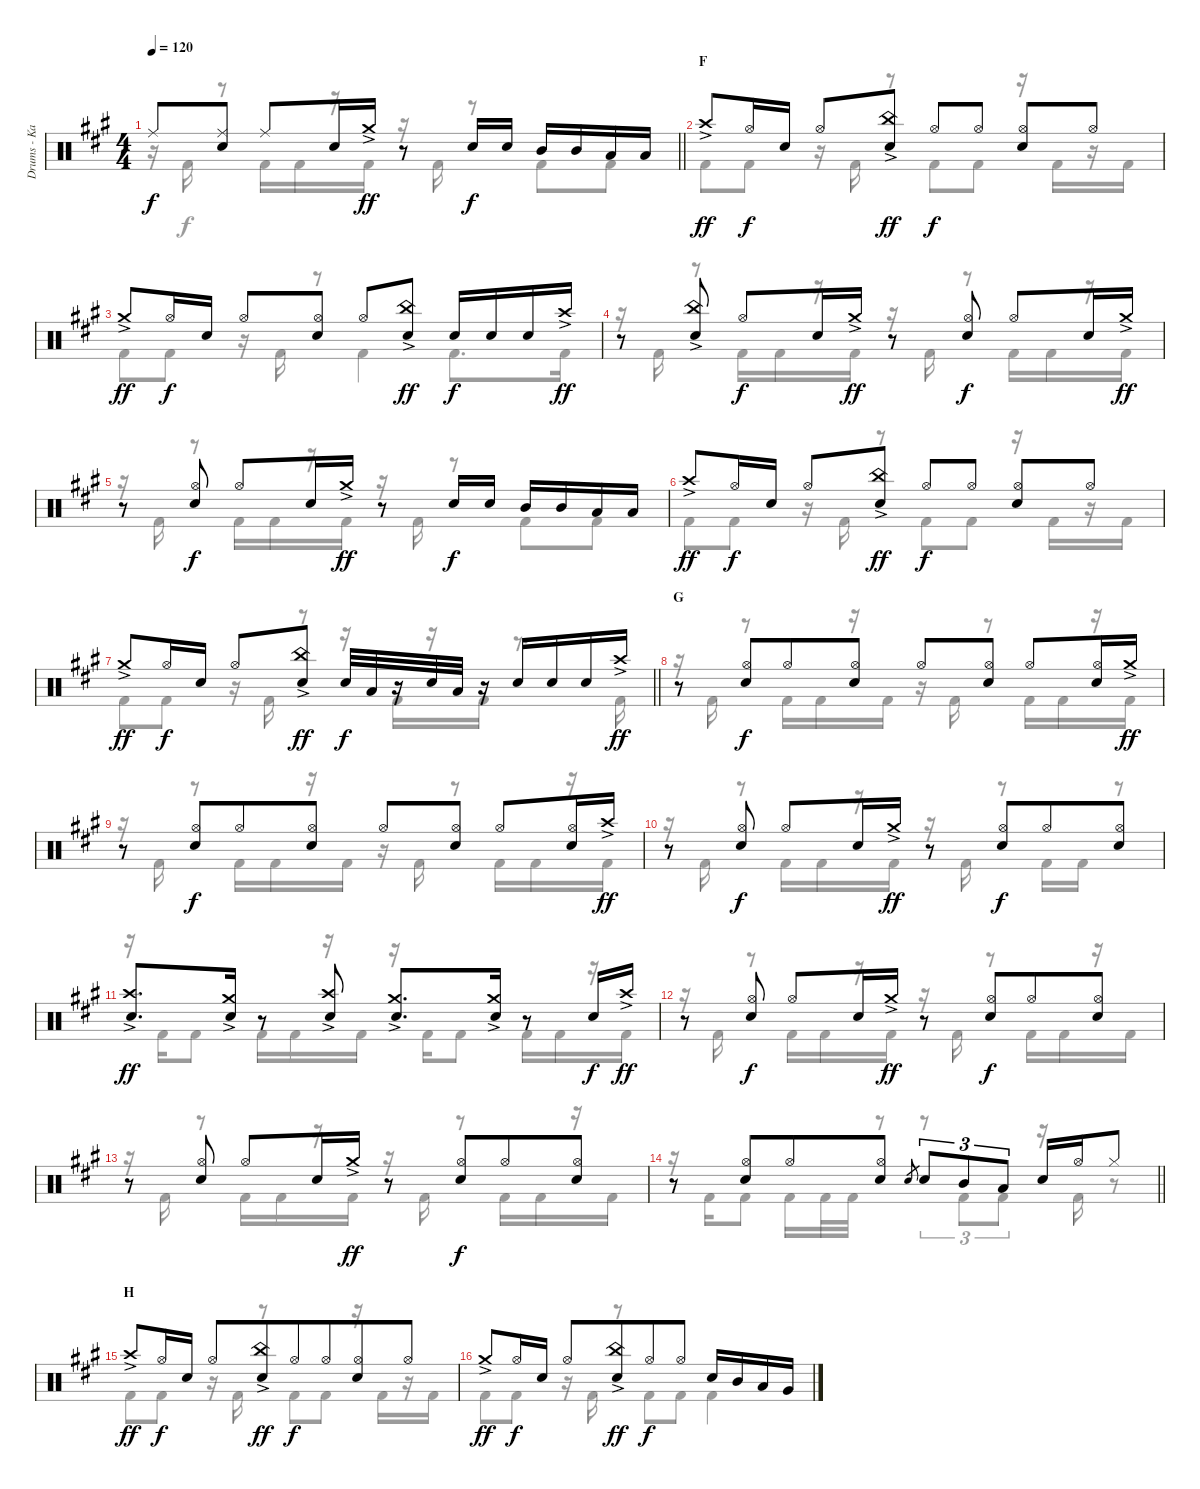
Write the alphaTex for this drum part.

\track ("Drums - Kai" "Drums - Ka") {instrument percussion}
\staff {score}
\articulation defaults
\voice
\ts (4 4)
\tempo 120
\clef neutral
\barLineRight lightlight
\ks a "Ride (middle)".8{dy f}
("Ride (middle)" "Snare (hit) 2").8 "Ride (middle)".8 "Snare (hit) 2".16 "Crash medium (hit)"{ac}.16{dy ff} r.8 "Snare (hit) 2".16{dy f} "Snare (hit) 2".16 "Mid Tom (hit)".16 "Mid Tom (hit)".16 "Low Tom (hit)".16 "Low Tom (hit)".16 |
\section ("" "F")
"Crash high (hit)"{ac}.8{dy ff} "Hi-Hat (open)".16{dy f} "Snare (hit) 2".16 "Hi-Hat (open)".8 ("China (hit)"{ac} "Snare (hit) 2").8{dy ff} "Hi-Hat (open)".8{dy f} "Hi-Hat (open)".8 ("Hi-Hat (open)" "Snare (hit) 2").8 "Hi-Hat (open)".8 |
"Crash medium (hit)"{ac}.8{dy ff} "Hi-Hat (open)".16{dy f} "Snare (hit) 2".16 "Hi-Hat (open)".8 ("Hi-Hat (open)" "Snare (hit) 2").8 "Hi-Hat (open)".8 ("China (hit)"{ac} "Snare (hit) 2").8{dy ff} "Snare (hit) 2".16{dy f} "Snare (hit) 2".16 "Snare (hit) 2".16 "Crash high (hit)"{ac}.16{dy ff} |
r.8 ("China (hit)"{ac} "Snare (hit) 2").8 "Hi-Hat (open)".8{dy f} "Snare (hit) 2".16 "Crash medium (hit)"{ac}.16{dy ff} r.8 ("Hi-Hat (open)" "Snare (hit) 2").8{dy f} "Hi-Hat (open)".8 "Snare (hit) 2".16 "Crash medium (hit)"{ac}.16{dy ff} |
r.8 ("Hi-Hat (open)" "Snare (hit) 2").8{dy f} "Hi-Hat (open)".8 "Snare (hit) 2".16 "Crash medium (hit)"{ac}.16{dy ff} r.8 "Snare (hit) 2".16{dy f} "Snare (hit) 2".16 "Mid Tom (hit)".16 "Mid Tom (hit)".16 "Low Tom (hit)".16 "Low Tom (hit)".16 |
"Crash high (hit)"{ac}.8{dy ff} "Hi-Hat (open)".16{dy f} "Snare (hit) 2".16 "Hi-Hat (open)".8 ("China (hit)"{ac} "Snare (hit) 2").8{dy ff} "Hi-Hat (open)".8{dy f} "Hi-Hat (open)".8 ("Hi-Hat (open)" "Snare (hit) 2").8 "Hi-Hat (open)".8 |
\barLineRight lightlight "Crash medium (hit)"{ac}.8{dy ff} "Hi-Hat (open)".16{dy f} "Snare (hit) 2".16 "Hi-Hat (open)".8
("China (hit)"{ac} "Snare (hit) 2").8{dy ff} "Snare (hit) 2".32{dy f} "Low Tom (hit)".32 r.16 "Snare (hit) 2".32 "Low Tom (hit)".32 r.16 "Snare (hit) 2".16 "Snare (hit) 2".16 "Snare (hit) 2".16 "Crash high (hit)"{ac}.16{dy ff} |
\section ("" "G")
r.8 ("Hi-Hat (open)" "Snare (hit) 2").8{dy f beam merge} "Hi-Hat (open)".8 ("Hi-Hat (open)" "Snare (hit) 2").8 "Hi-Hat (open)".8 ("Hi-Hat (open)" "Snare (hit) 2").8 "Hi-Hat (open)".8 ("Hi-Hat (open)" "Snare (hit) 2").16 "Crash medium (hit)"{ac}.16{dy ff} |
r.8 ("Hi-Hat (open)" "Snare (hit) 2").8{dy f beam merge} "Hi-Hat (open)".8 ("Hi-Hat (open)" "Snare (hit) 2").8 "Hi-Hat (open)".8 ("Hi-Hat (open)" "Snare (hit) 2").8 "Hi-Hat (open)".8 ("Hi-Hat (open)" "Snare (hit) 2").16 "Crash high (hit)"{ac}.16{dy ff} |
r.8 ("Hi-Hat (open)" "Snare (hit) 2").8{dy f} "Hi-Hat (open)".8 "Snare (hit) 2".16 "Crash medium (hit)"{ac}.16{dy ff} r.8 ("Hi-Hat (open)" "Snare (hit) 2").8{dy f beam merge} "Hi-Hat (open)".8 ("Hi-Hat (open)" "Snare (hit) 2").8 |
("Crash high (hit)"{ac} "Snare (hit) 2").8{d dy ff} ("Crash medium (hit)"{ac} "Snare (hit) 2").16 r.8 ("Crash high (hit)"{ac} "Snare (hit) 2").8 ("Crash medium (hit)"{ac} "Snare (hit) 2").8{d} ("Crash medium (hit)"{ac} "Snare (hit) 2").16 r.8 "Snare (hit) 2".16{dy f} "Crash high (hit)"{ac}.16{dy ff} |
r.8 ("Hi-Hat (open)" "Snare (hit) 2").8{dy f} "Hi-Hat (open)".8 "Snare (hit) 2".16 "Crash medium (hit)"{ac}.16{dy ff} r.8 ("Hi-Hat (open)" "Snare (hit) 2").8{dy f beam merge} "Hi-Hat (open)".8 ("Hi-Hat (open)" "Snare (hit) 2").8 |
r.8 ("Hi-Hat (open)" "Snare (hit) 2").8 "Hi-Hat (open)".8 "Snare (hit) 2".16 "Crash medium (hit)"{ac}.16{dy ff} r.8 ("Hi-Hat (open)" "Snare (hit) 2").8{dy f beam merge} "Hi-Hat (open)".8 ("Hi-Hat (open)" "Snare (hit) 2").8 |
\barLineRight lightlight
r.8 ("Hi-Hat (open)" "Snare (hit) 2").8{beam merge} "Hi-Hat (open)".8 ("Hi-Hat (open)" "Snare (hit) 2").8 "Snare (hit) 2".8{gr} "Snare (hit) 2".8{tu (3 2)} "Mid Tom (hit)".8{tu (3 2)} "Low Tom (hit)".8{tu (3 2)} "Snare (hit) 2".16 "Hi-Hat (open)".16 "Hi-Hat (closed)".8 |
\section ("" "H")
"Crash high (hit)"{ac}.8{dy ff} "Hi-Hat (open)".16{dy f} "Snare (hit) 2".16 "Hi-Hat (open)".8 ("China (hit)"{ac} "Snare (hit) 2").8{dy ff beam merge} "Hi-Hat (open)".8{dy f} "Hi-Hat (open)".8{beam merge} ("Hi-Hat (open)" "Snare (hit) 2").8 "Hi-Hat (open)".8 |
"Crash medium (hit)"{ac}.8{dy ff} "Hi-Hat (open)".16{dy f} "Snare (hit) 2".16 "Hi-Hat (open)".8 ("China (hit)"{ac} "Snare (hit) 2").8{dy ff beam merge} "Hi-Hat (open)".8{dy f} "Hi-Hat (open)".8 "Snare (hit) 2".16 "Mid Tom (hit)".16 "Low Tom (hit)".16 "Very Low Tom (hit)".16
\voice
\clef neutral
\ottava regular
\simile none
\barLineRight lightlight
\ks a
r.16{dy f} "Kick (hit) 2".16 r.8 "Kick (hit) 2".16 "Kick (hit) 2".16 r.16 "Kick (hit) 2".16 r.16 "Kick (hit) 2".16 r.8 "Kick (hit) 2".8 "Kick (hit) 2".8 |
"Kick (hit) 2".8 "Kick (hit) 2".8 r.16 "Kick (hit) 2".16 r.8 "Kick (hit) 2".8 "Kick (hit) 2".8 r.16 "Kick (hit) 2".16 r.16 "Kick (hit) 2".16 |
"Kick (hit) 2".8 "Kick (hit) 2".8 r.16 "Kick (hit) 2".16 r.8 "Kick (hit) 2".4 "Kick (hit) 2".8{d} "Kick (hit) 2".16 |
r.16 "Kick (hit) 2".16 r.8 "Kick (hit) 2".16 "Kick (hit) 2".16 r.16 "Kick (hit) 2".16 r.16 "Kick (hit) 2".16 r.8 "Kick (hit) 2".16 "Kick (hit) 2".16 r.16 "Kick (hit) 2".16 |
r.16 "Kick (hit) 2".16 r.8 "Kick (hit) 2".16 "Kick (hit) 2".16 r.16 "Kick (hit) 2".16 r.16 "Kick (hit) 2".16 r.8 "Kick (hit) 2".8 "Kick (hit) 2".8 |
"Kick (hit) 2".8 "Kick (hit) 2".8 r.16 "Kick (hit) 2".16 r.8 "Kick (hit) 2".8 "Kick (hit) 2".8 r.16 "Kick (hit) 2".16 r.16 "Kick (hit) 2".16 |
\barLineRight lightlight "Kick (hit) 2".8 "Kick (hit) 2".8
r.16 "Kick (hit) 2".16 r.8 r.16 "Kick (hit) 2".16 r.16 "Kick (hit) 2".16 r.8{d} "Kick (hit) 2".16 |
r.16 "Kick (hit) 2".16 r.8 "Kick (hit) 2".16 "Kick (hit) 2".16 r.16 "Kick (hit) 2".16 r.16 "Kick (hit) 2".16 r.8 "Kick (hit) 2".16 "Kick (hit) 2".16 r.16 "Kick (hit) 2".16 |
r.16 "Kick (hit) 2".16 r.8 "Kick (hit) 2".16 "Kick (hit) 2".16 r.16 "Kick (hit) 2".16 r.16 "Kick (hit) 2".16 r.8 "Kick (hit) 2".16 "Kick (hit) 2".16 r.16 "Kick (hit) 2".16 |
r.16 "Kick (hit) 2".16 r.8 "Kick (hit) 2".16 "Kick (hit) 2".16 r.16 "Kick (hit) 2".16 r.16 "Kick (hit) 2".16 r.8 "Kick (hit) 2".16 "Kick (hit) 2".16 r.8 |
r.16 "Kick (hit) 2".16 "Kick (hit) 2".8 "Kick (hit) 2".16 "Kick (hit) 2".16 r.16 "Kick (hit) 2".16 r.16 "Kick (hit) 2".16 "Kick (hit) 2".8 "Kick (hit) 2".16 "Kick (hit) 2".16 r.16 "Kick (hit) 2".16 |
r.16 "Kick (hit) 2".16 r.8 "Kick (hit) 2".16 "Kick (hit) 2".16 r.16 "Kick (hit) 2".16 r.16 "Kick (hit) 2".16 r.8 "Kick (hit) 2".16 "Kick (hit) 2".16 r.16 "Kick (hit) 2".16 |
r.16 "Kick (hit) 2".16 r.8 "Kick (hit) 2".16 "Kick (hit) 2".16 r.16 "Kick (hit) 2".16 r.16 "Kick (hit) 2".16 r.8 "Kick (hit) 2".16 "Kick (hit) 2".16 r.16 "Kick (hit) 2".16 |
\barLineRight lightlight
r.16 "Kick (hit) 2".16 "Kick (hit) 2".8 "Kick (hit) 2".16 "Kick (hit) 2".32 "Kick (hit) 2".32 r.8 r.8{tu (3 2)} "Kick (hit) 2".8{tu (3 2)} "Kick (hit) 2".8{tu (3 2)} r.16 "Kick (hit) 2".16 r.8 |
"Kick (hit) 2".8 "Kick (hit) 2".8 r.16 "Kick (hit) 2".16 r.8 "Kick (hit) 2".8 "Kick (hit) 2".8 r.16 "Kick (hit) 2".16 r.16 "Kick (hit) 2".16 |
"Kick (hit) 2".8 "Kick (hit) 2".8 r.16 "Kick (hit) 2".16 r.8 "Kick (hit) 2".8 "Kick (hit) 2".8 "Kick (hit) 2".4
